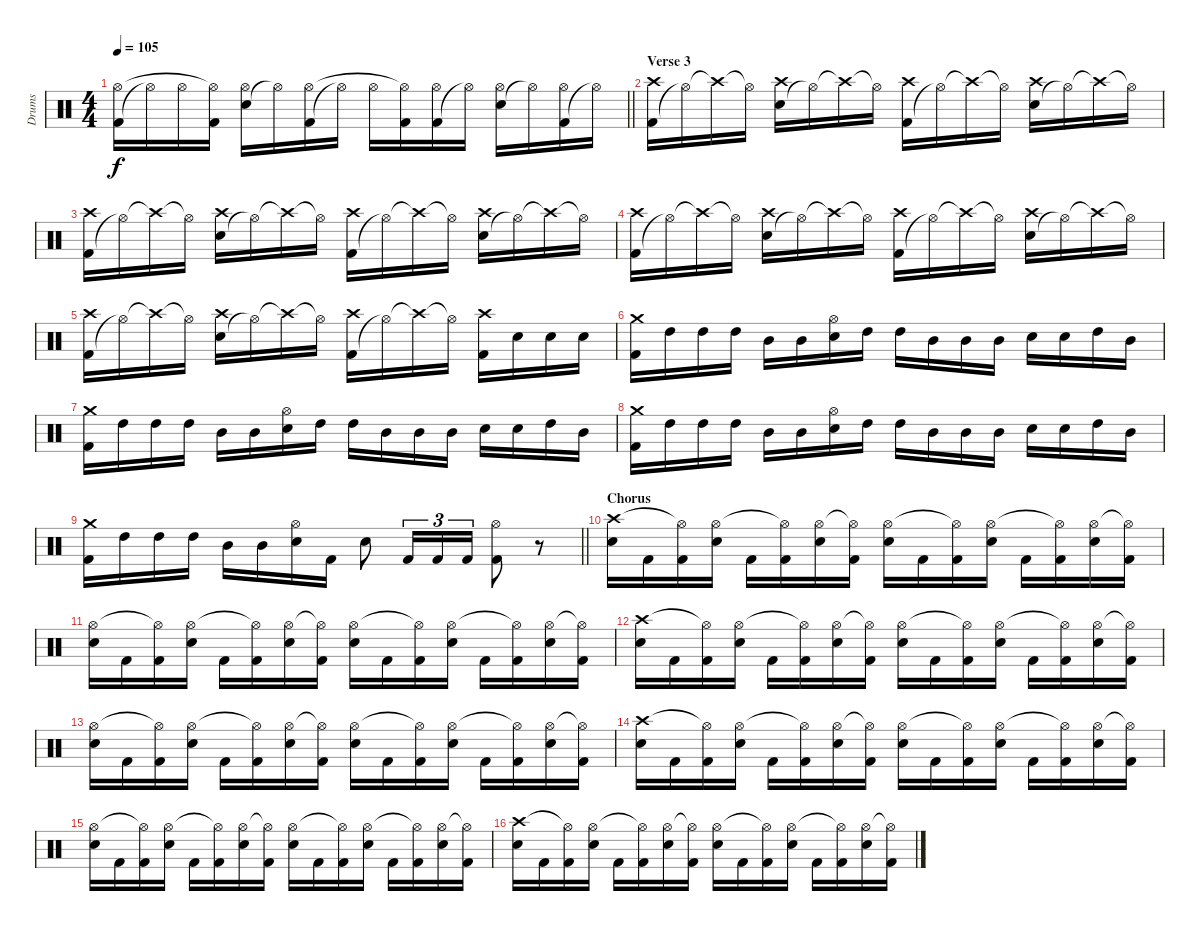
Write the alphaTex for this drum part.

\track ("Drums" "Drums") {instrument percussion}
\staff {score}
\articulation defaults
\ts (4 4)
\tempo 105
\clef neutral
\barLineRight lightlight
\ks c
("Kick (hit) 2" "Hi-Hat (open)").16{dy f} "Hi-Hat (open)"{t}.16 "Hi-Hat (open)".16 ("Kick (hit) 2" "Hi-Hat (open)"{t}).16 ("Snare (hit) 2" "Hi-Hat (open)").16 "Hi-Hat (open)"{t}.16 ("Kick (hit) 2" "Hi-Hat (open)").16 "Hi-Hat (open)"{t}.16 "Hi-Hat (open)".16 ("Kick (hit) 2" "Hi-Hat (open)"{t}).16 ("Kick (hit) 2" "Hi-Hat (open)").16 "Hi-Hat (open)"{t}.16 ("Snare (hit) 2" "Hi-Hat (open)").16 "Hi-Hat (open)"{t}.16 ("Kick (hit) 2" "Hi-Hat (open)").16 "Hi-Hat (open)"{t}.16 |
\section ("" "Verse 3")
("Kick (hit) 2" "Crash high (hit)").16 "Hi-Hat (open)"{t}.16 "Crash high (hit)"{t}.16 "Hi-Hat (open)"{t}.16 ("Snare (hit) 2" "Crash high (hit)").16 "Hi-Hat (open)"{t}.16 "Crash high (hit)"{t}.16 "Hi-Hat (open)"{t}.16 ("Kick (hit) 2" "Crash high (hit)").16 "Hi-Hat (open)"{t}.16 "Crash high (hit)"{t}.16 "Hi-Hat (open)"{t}.16 ("Snare (hit) 2" "Crash high (hit)").16 "Hi-Hat (open)"{t}.16 "Crash high (hit)"{t}.16 "Hi-Hat (open)"{t}.16 |
("Kick (hit) 2" "Crash high (hit)").16 "Hi-Hat (open)"{t}.16 "Crash high (hit)"{t}.16 "Hi-Hat (open)"{t}.16 ("Snare (hit) 2" "Crash high (hit)").16 "Hi-Hat (open)"{t}.16 "Crash high (hit)"{t}.16 "Hi-Hat (open)"{t}.16 ("Kick (hit) 2" "Crash high (hit)").16 "Hi-Hat (open)"{t}.16 "Crash high (hit)"{t}.16 "Hi-Hat (open)"{t}.16 ("Snare (hit) 2" "Crash high (hit)").16 "Hi-Hat (open)"{t}.16 "Crash high (hit)"{t}.16 "Hi-Hat (open)"{t}.16 |
("Kick (hit) 2" "Crash high (hit)").16 "Hi-Hat (open)"{t}.16 "Crash high (hit)"{t}.16 "Hi-Hat (open)"{t}.16 ("Snare (hit) 2" "Crash high (hit)").16 "Hi-Hat (open)"{t}.16 "Crash high (hit)"{t}.16 "Hi-Hat (open)"{t}.16 ("Kick (hit) 2" "Crash high (hit)").16 "Hi-Hat (open)"{t}.16 "Crash high (hit)"{t}.16 "Hi-Hat (open)"{t}.16 ("Snare (hit) 2" "Crash high (hit)").16 "Hi-Hat (open)"{t}.16 "Crash high (hit)"{t}.16 "Hi-Hat (open)"{t}.16 |
("Kick (hit) 2" "Crash high (hit)").16 "Hi-Hat (open)"{t}.16 "Crash high (hit)"{t}.16 "Hi-Hat (open)"{t}.16 ("Snare (hit) 2" "Crash high (hit)").16 "Hi-Hat (open)"{t}.16 "Crash high (hit)"{t}.16 "Hi-Hat (open)"{t}.16 ("Kick (hit) 2" "Crash high (hit)").16 "Hi-Hat (open)"{t}.16 "Crash high (hit)"{t}.16 "Hi-Hat (open)"{t}.16 ("Kick (hit) 2" "Crash high (hit)").16 "Snare (hit) 2".16 "Snare (hit) 2".16 "Snare (hit) 2".16 |
("Kick (hit) 2" "Crash medium (hit)").16 "High Tom (hit)".16 "High Tom (hit)".16 "High Tom (hit)".16 "Mid Tom (hit)".16 "Mid Tom (hit)".16 ("Snare (hit) 2" "Hi-Hat (open)").16 "High Tom (hit)".16 "High Tom (hit)".16 "Mid Tom (hit)".16 "Mid Tom (hit)".16 "Mid Tom (hit)".16 "Snare (hit) 2".16 "Snare (hit) 2".16 "High Tom (hit)".16 "Mid Tom (hit)".16 |
("Kick (hit) 2" "Crash medium (hit)").16 "High Tom (hit)".16 "High Tom (hit)".16 "High Tom (hit)".16 "Mid Tom (hit)".16 "Mid Tom (hit)".16 ("Snare (hit) 2" "Hi-Hat (open)").16 "High Tom (hit)".16 "High Tom (hit)".16 "Mid Tom (hit)".16 "Mid Tom (hit)".16 "Mid Tom (hit)".16 "Snare (hit) 2".16 "Snare (hit) 2".16 "High Tom (hit)".16 "Mid Tom (hit)".16 |
("Kick (hit) 2" "Crash medium (hit)").16 "High Tom (hit)".16 "High Tom (hit)".16 "High Tom (hit)".16 "Mid Tom (hit)".16 "Mid Tom (hit)".16 ("Snare (hit) 2" "Hi-Hat (open)").16 "High Tom (hit)".16 "High Tom (hit)".16 "Mid Tom (hit)".16 "Mid Tom (hit)".16 "Mid Tom (hit)".16 "Snare (hit) 2".16 "Snare (hit) 2".16 "High Tom (hit)".16 "Mid Tom (hit)".16 |
\barLineRight lightlight
("Kick (hit) 2" "Crash medium (hit)").16 "High Tom (hit)".16 "High Tom (hit)".16 "High Tom (hit)".16 "Mid Tom (hit)".16 "Mid Tom (hit)".16 ("Snare (hit) 2" "Hi-Hat (open)").16 "Kick (hit) 2".16 "Snare (hit) 2".8 "Kick (hit) 2".16{tu (3 2)} "Kick (hit) 2".16{tu (3 2)} "Kick (hit) 2".16{tu (3 2)} ("Hi-Hat (open)" "Kick (hit) 2").8 r.8 |
\section ("" "Chorus")
("Snare (hit) 2" "Crash high (hit)").16 "Kick (hit) 2".16 ("Kick (hit) 2" "Hi-Hat (open)"{t}).16 ("Snare (hit) 2" "Hi-Hat (open)").16 "Kick (hit) 2".16 ("Kick (hit) 2" "Hi-Hat (open)"{t}).16 ("Snare (hit) 2" "Hi-Hat (open)").16 ("Kick (hit) 2" "Hi-Hat (open)"{t}).16 ("Snare (hit) 2" "Hi-Hat (open)").16 "Kick (hit) 2".16 ("Kick (hit) 2" "Hi-Hat (open)"{t}).16 ("Snare (hit) 2" "Hi-Hat (open)").16 "Kick (hit) 2".16 ("Kick (hit) 2" "Hi-Hat (open)"{t}).16 ("Snare (hit) 2" "Hi-Hat (open)").16 ("Kick (hit) 2" "Hi-Hat (open)"{t}).16 |
("Snare (hit) 2" "Hi-Hat (open)").16 "Kick (hit) 2".16 ("Kick (hit) 2" "Hi-Hat (open)"{t}).16 ("Snare (hit) 2" "Hi-Hat (open)").16 "Kick (hit) 2".16 ("Kick (hit) 2" "Hi-Hat (open)"{t}).16 ("Snare (hit) 2" "Hi-Hat (open)").16 ("Kick (hit) 2" "Hi-Hat (open)"{t}).16 ("Snare (hit) 2" "Hi-Hat (open)").16 "Kick (hit) 2".16 ("Kick (hit) 2" "Hi-Hat (open)"{t}).16 ("Snare (hit) 2" "Hi-Hat (open)").16 "Kick (hit) 2".16 ("Kick (hit) 2" "Hi-Hat (open)"{t}).16 ("Snare (hit) 2" "Hi-Hat (open)").16 ("Kick (hit) 2" "Hi-Hat (open)"{t}).16 |
("Snare (hit) 2" "Crash high (hit)").16 "Kick (hit) 2".16 ("Kick (hit) 2" "Hi-Hat (open)"{t}).16 ("Snare (hit) 2" "Hi-Hat (open)").16 "Kick (hit) 2".16 ("Kick (hit) 2" "Hi-Hat (open)"{t}).16 ("Snare (hit) 2" "Hi-Hat (open)").16 ("Kick (hit) 2" "Hi-Hat (open)"{t}).16 ("Snare (hit) 2" "Hi-Hat (open)").16 "Kick (hit) 2".16 ("Kick (hit) 2" "Hi-Hat (open)"{t}).16 ("Snare (hit) 2" "Hi-Hat (open)").16 "Kick (hit) 2".16 ("Kick (hit) 2" "Hi-Hat (open)"{t}).16 ("Snare (hit) 2" "Hi-Hat (open)").16 ("Kick (hit) 2" "Hi-Hat (open)"{t}).16 |
("Snare (hit) 2" "Hi-Hat (open)").16 "Kick (hit) 2".16 ("Kick (hit) 2" "Hi-Hat (open)"{t}).16 ("Snare (hit) 2" "Hi-Hat (open)").16 "Kick (hit) 2".16 ("Kick (hit) 2" "Hi-Hat (open)"{t}).16 ("Snare (hit) 2" "Hi-Hat (open)").16 ("Kick (hit) 2" "Hi-Hat (open)"{t}).16 ("Snare (hit) 2" "Hi-Hat (open)").16 "Kick (hit) 2".16 ("Kick (hit) 2" "Hi-Hat (open)"{t}).16 ("Snare (hit) 2" "Hi-Hat (open)").16 "Kick (hit) 2".16 ("Kick (hit) 2" "Hi-Hat (open)"{t}).16 ("Snare (hit) 2" "Hi-Hat (open)").16 ("Kick (hit) 2" "Hi-Hat (open)"{t}).16 |
("Snare (hit) 2" "Crash high (hit)").16 "Kick (hit) 2".16 ("Kick (hit) 2" "Hi-Hat (open)"{t}).16 ("Snare (hit) 2" "Hi-Hat (open)").16 "Kick (hit) 2".16 ("Kick (hit) 2" "Hi-Hat (open)"{t}).16 ("Snare (hit) 2" "Hi-Hat (open)").16 ("Kick (hit) 2" "Hi-Hat (open)"{t}).16 ("Snare (hit) 2" "Hi-Hat (open)").16 "Kick (hit) 2".16 ("Kick (hit) 2" "Hi-Hat (open)"{t}).16 ("Snare (hit) 2" "Hi-Hat (open)").16 "Kick (hit) 2".16 ("Kick (hit) 2" "Hi-Hat (open)"{t}).16 ("Snare (hit) 2" "Hi-Hat (open)").16 ("Kick (hit) 2" "Hi-Hat (open)"{t}).16 |
("Snare (hit) 2" "Hi-Hat (open)").16 "Kick (hit) 2".16 ("Kick (hit) 2" "Hi-Hat (open)"{t}).16 ("Snare (hit) 2" "Hi-Hat (open)").16 "Kick (hit) 2".16 ("Kick (hit) 2" "Hi-Hat (open)"{t}).16 ("Snare (hit) 2" "Hi-Hat (open)").16 ("Kick (hit) 2" "Hi-Hat (open)"{t}).16 ("Snare (hit) 2" "Hi-Hat (open)").16 "Kick (hit) 2".16 ("Kick (hit) 2" "Hi-Hat (open)"{t}).16 ("Snare (hit) 2" "Hi-Hat (open)").16 "Kick (hit) 2".16 ("Kick (hit) 2" "Hi-Hat (open)"{t}).16 ("Snare (hit) 2" "Hi-Hat (open)").16 ("Kick (hit) 2" "Hi-Hat (open)"{t}).16 |
("Snare (hit) 2" "Crash high (hit)").16 "Kick (hit) 2".16 ("Kick (hit) 2" "Hi-Hat (open)"{t}).16 ("Snare (hit) 2" "Hi-Hat (open)").16 "Kick (hit) 2".16 ("Kick (hit) 2" "Hi-Hat (open)"{t}).16 ("Snare (hit) 2" "Hi-Hat (open)").16 ("Kick (hit) 2" "Hi-Hat (open)"{t}).16 ("Snare (hit) 2" "Hi-Hat (open)").16 "Kick (hit) 2".16 ("Kick (hit) 2" "Hi-Hat (open)"{t}).16 ("Snare (hit) 2" "Hi-Hat (open)").16 "Kick (hit) 2".16 ("Kick (hit) 2" "Hi-Hat (open)"{t}).16 ("Snare (hit) 2" "Hi-Hat (open)").16 ("Kick (hit) 2" "Hi-Hat (open)"{t}).16
